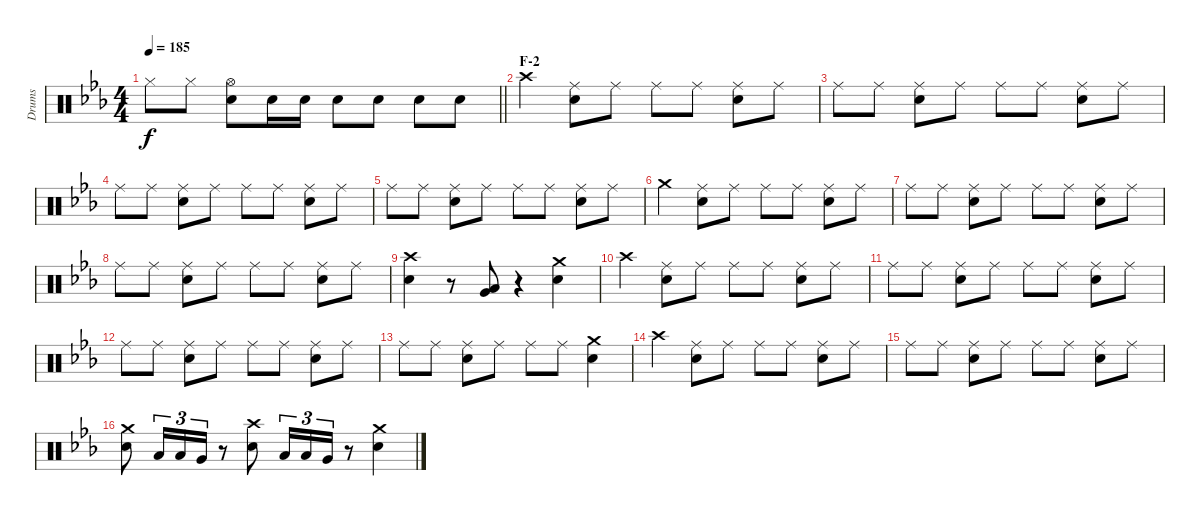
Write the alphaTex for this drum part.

\track ("Drums" "Drums") {instrument percussion}
\staff {score}
\articulation defaults
\ts (4 4)
\tempo 185
\clef neutral
\barLineRight lightlight
\ks eb "Hi-Hat (closed)".8{dy f} "Hi-Hat (closed)".8
("Hi-Hat (open)" "Snare (hit) 2").8 "Snare (hit) 2".16 "Snare (hit) 2".16 "Snare (hit) 2".8 "Snare (hit) 2".8 "Snare (hit) 2".8 "Snare (hit) 2".8 |
\section ("" "F-2")
"Crash high (hit)".4 ("Ride (middle)" "Snare (hit) 2").8 "Ride (middle)".8 "Ride (middle)".8 "Ride (middle)".8 ("Ride (middle)" "Snare (hit) 2").8 "Ride (middle)".8 |
"Ride (middle)".8 "Ride (middle)".8 ("Ride (middle)" "Snare (hit) 2").8 "Ride (middle)".8 "Ride (middle)".8 "Ride (middle)".8 ("Ride (middle)" "Snare (hit) 2").8 "Ride (middle)".8 |
"Ride (middle)".8 "Ride (middle)".8 ("Ride (middle)" "Snare (hit) 2").8 "Ride (middle)".8 "Ride (middle)".8 "Ride (middle)".8 ("Ride (middle)" "Snare (hit) 2").8 "Ride (middle)".8 |
"Ride (middle)".8 "Ride (middle)".8 ("Ride (middle)" "Snare (hit) 2").8 "Ride (middle)".8 "Ride (middle)".8 "Ride (middle)".8 ("Ride (middle)" "Snare (hit) 2").8 "Ride (middle)".8 |
"Crash medium (hit)".4 ("Ride (middle)" "Snare (hit) 2").8 "Ride (middle)".8 "Ride (middle)".8 "Ride (middle)".8 ("Ride (middle)" "Snare (hit) 2").8 "Ride (middle)".8 |
"Ride (middle)".8 "Ride (middle)".8 ("Ride (middle)" "Snare (hit) 2").8 "Ride (middle)".8 "Ride (middle)".8 "Ride (middle)".8 ("Ride (middle)" "Snare (hit) 2").8 "Ride (middle)".8 |
"Ride (middle)".8 "Ride (middle)".8 ("Ride (middle)" "Snare (hit) 2").8 "Ride (middle)".8 "Ride (middle)".8 "Ride (middle)".8 ("Ride (middle)" "Snare (hit) 2").8 "Ride (middle)".8 |
("Crash high (hit)" "Snare (hit) 2").4 r.8 ("Low Tom (hit)" "Very Low Tom (hit)").8 r.4 ("Crash medium (hit)" "Snare (hit) 2").4 |
"Crash high (hit)".4 ("Ride (middle)" "Snare (hit) 2").8 "Ride (middle)".8 "Ride (middle)".8 "Ride (middle)".8 ("Ride (middle)" "Snare (hit) 2").8 "Ride (middle)".8 |
"Ride (middle)".8 "Ride (middle)".8 ("Ride (middle)" "Snare (hit) 2").8 "Ride (middle)".8 "Ride (middle)".8 "Ride (middle)".8 ("Ride (middle)" "Snare (hit) 2").8 "Ride (middle)".8 |
"Ride (middle)".8 "Ride (middle)".8 ("Ride (middle)" "Snare (hit) 2").8 "Ride (middle)".8 "Ride (middle)".8 "Ride (middle)".8 ("Ride (middle)" "Snare (hit) 2").8 "Ride (middle)".8 |
"Ride (middle)".8 "Ride (middle)".8 ("Ride (middle)" "Snare (hit) 2").8 "Ride (middle)".8 "Ride (middle)".8 "Ride (middle)".8 ("Crash medium (hit)" "Snare (hit) 2").4 |
"Crash high (hit)".4 ("Ride (middle)" "Snare (hit) 2").8 "Ride (middle)".8 "Ride (middle)".8 "Ride (middle)".8 ("Ride (middle)" "Snare (hit) 2").8 "Ride (middle)".8 |
"Ride (middle)".8 "Ride (middle)".8 ("Ride (middle)" "Snare (hit) 2").8 "Ride (middle)".8 "Ride (middle)".8 "Ride (middle)".8 ("Ride (middle)" "Snare (hit) 2").8 "Ride (middle)".8 |
("Crash medium (hit)" "Snare (hit) 2").8 "Low Tom (hit)".16{tu (3 2)} "Low Tom (hit)".16{tu (3 2)} "Very Low Tom (hit)".16{tu (3 2)} r.8 ("Crash high (hit)" "Snare (hit) 2").8 "Low Tom (hit)".16{tu (3 2)} "Low Tom (hit)".16{tu (3 2)} "Very Low Tom (hit)".16{tu (3 2)} r.8 ("Crash medium (hit)" "Snare (hit) 2").4
